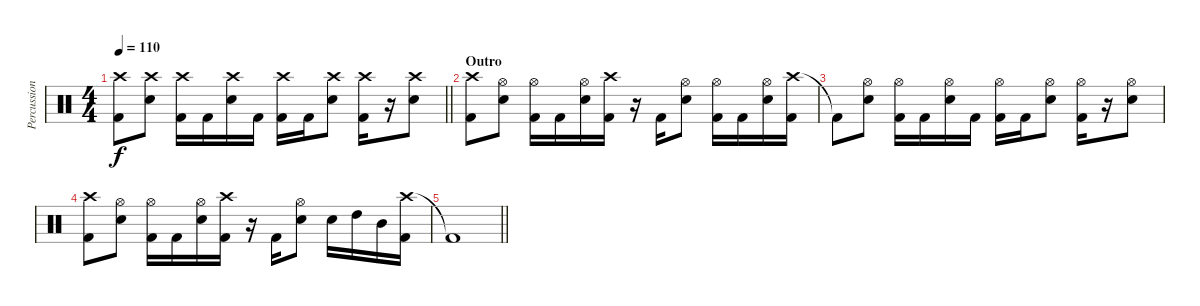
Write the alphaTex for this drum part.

\track ("Percussions" "Percussion") {instrument percussion}
\staff {score}
\articulation defaults
\ts (4 4)
\tempo 110
\clef neutral
\barLineRight lightlight
\ks c
("Crash high (hit)" "Kick (hit) 2").8{dy f} ("Crash high (hit)" "Electric Snare (hit)").8 ("Crash high (hit)" "Kick (hit) 2").16 "Kick (hit) 2".16 ("Crash high (hit)" "Electric Snare (hit)").16 "Kick (hit) 2".16 ("Crash high (hit)" "Kick (hit) 2").16 "Kick (hit) 2".16 ("Crash high (hit)" "Electric Snare (hit)").8 ("Crash high (hit)" "Kick (hit) 2").16 r.16 ("Crash high (hit)" "Electric Snare (hit)").8 |
\section ("" "Outro")
("Crash high (hit)" "Kick (hit) 2").8 ("Hi-Hat (open)" "Electric Snare (hit)").8 ("Hi-Hat (open)" "Kick (hit) 2").16 "Kick (hit) 2".16 ("Hi-Hat (open)" "Electric Snare (hit)").16 ("Crash high (hit)" "Kick (hit) 2").16 r.16 "Kick (hit) 2".16 ("Hi-Hat (open)" "Electric Snare (hit)").8 ("Hi-Hat (open)" "Kick (hit) 2").16 "Kick (hit) 2".16 ("Hi-Hat (open)" "Electric Snare (hit)").16 ("Crash high (hit)" "Kick (hit) 2").16 |
"Kick (hit) 2"{t}.8 ("Hi-Hat (open)" "Electric Snare (hit)").8 ("Hi-Hat (open)" "Kick (hit) 2").16 "Kick (hit) 2".16 ("Hi-Hat (open)" "Electric Snare (hit)").16 "Kick (hit) 2".16 ("Hi-Hat (open)" "Kick (hit) 2").16 "Kick (hit) 2".16 ("Hi-Hat (open)" "Electric Snare (hit)").8 ("Hi-Hat (open)" "Kick (hit) 2").16 r.16 ("Hi-Hat (open)" "Electric Snare (hit)").8 |
("Crash high (hit)" "Kick (hit) 2").8 ("Hi-Hat (open)" "Electric Snare (hit)").8 ("Hi-Hat (open)" "Kick (hit) 2").16 "Kick (hit) 2".16 ("Hi-Hat (open)" "Electric Snare (hit)").16 ("Crash high (hit)" "Kick (hit) 2").16 r.16 "Kick (hit) 2".16 ("Hi-Hat (open)" "Electric Snare (hit)").8 "Electric Snare (hit)".16 "High Tom (hit)".16 "Mid Tom (hit)".16 ("Crash high (hit)" "Kick (hit) 2").16 |
\barLineRight lightlight "Kick (hit) 2"{t}.1
